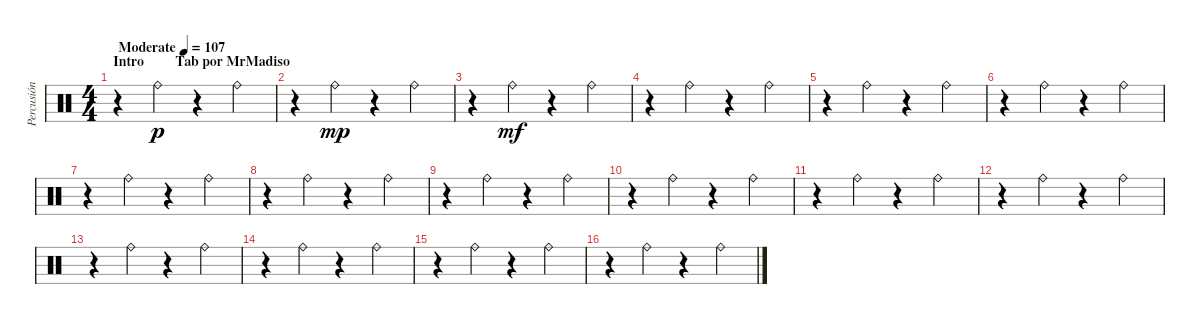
\track ("Percusión" "Percusión") {instrument percussion}
\staff {score}
\articulation defaults
\ts (4 4)
\section ("" "Intro         Tab por MrMadiso")
\tempo (107 "Moderate")
\clef neutral
\ks c
r.4{dy p} "Ride (bell)".4 r.4 "Ride (bell)".4 |
r.4 "Ride (bell)".4{dy mp} r.4 "Ride (bell)".4 |
r.4 "Ride (bell)".4{dy mf} r.4 "Ride (bell)".4 |
r.4 "Ride (bell)".4 r.4 "Ride (bell)".4 |
r.4 "Ride (bell)".4 r.4 "Ride (bell)".4 |
r.4 "Ride (bell)".4 r.4 "Ride (bell)".4 |
r.4 "Ride (bell)".4 r.4 "Ride (bell)".4 |
r.4 "Ride (bell)".4 r.4 "Ride (bell)".4 |
r.4 "Ride (bell)".4 r.4 "Ride (bell)".4 |
r.4 "Ride (bell)".4 r.4 "Ride (bell)".4 |
r.4 "Ride (bell)".4 r.4 "Ride (bell)".4 |
r.4 "Ride (bell)".4 r.4 "Ride (bell)".4 |
r.4 "Ride (bell)".4 r.4 "Ride (bell)".4 |
r.4 "Ride (bell)".4 r.4 "Ride (bell)".4 |
r.4 "Ride (bell)".4 r.4 "Ride (bell)".4 |
r.4 "Ride (bell)".4 r.4 "Ride (bell)".4
